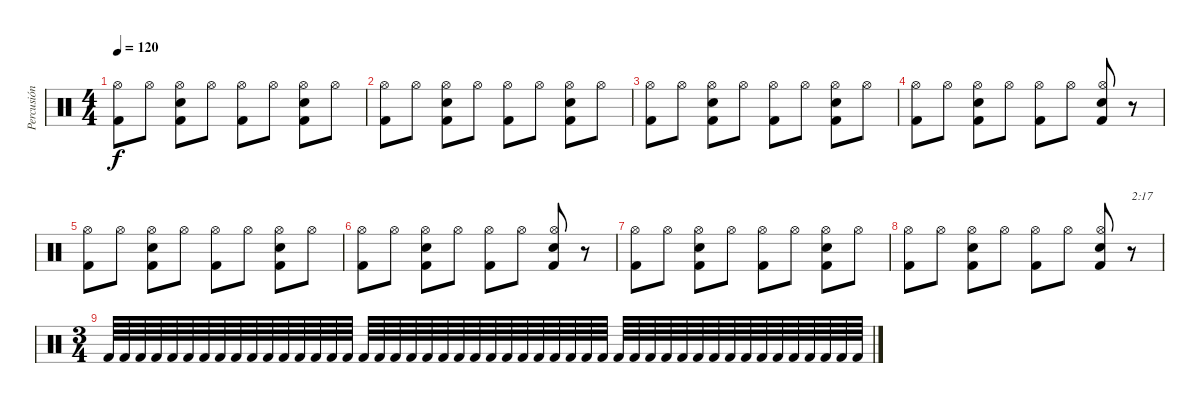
\track ("Percusión" "Percusión") {instrument percussion}
\staff {score}
\articulation defaults
\ts (4 4)
\tempo 120
\clef neutral
\ks c
("Kick (hit) 2" "Hi-Hat (open)").8{dy f} "Hi-Hat (open)".8 ("Kick (hit) 2" "Electric Snare (hit)" "Hi-Hat (open)").8 "Hi-Hat (open)".8 ("Kick (hit) 2" "Hi-Hat (open)").8 "Hi-Hat (open)".8 ("Kick (hit) 2" "Electric Snare (hit)" "Hi-Hat (open)").8 "Hi-Hat (open)".8 |
("Kick (hit) 2" "Hi-Hat (open)").8 "Hi-Hat (open)".8 ("Kick (hit) 2" "Electric Snare (hit)" "Hi-Hat (open)").8 "Hi-Hat (open)".8 ("Kick (hit) 2" "Hi-Hat (open)").8 "Hi-Hat (open)".8 ("Kick (hit) 2" "Electric Snare (hit)" "Hi-Hat (open)").8 "Hi-Hat (open)".8 |
("Kick (hit) 2" "Hi-Hat (open)").8 "Hi-Hat (open)".8 ("Kick (hit) 2" "Electric Snare (hit)" "Hi-Hat (open)").8 "Hi-Hat (open)".8 ("Kick (hit) 2" "Hi-Hat (open)").8 "Hi-Hat (open)".8 ("Kick (hit) 2" "Electric Snare (hit)" "Hi-Hat (open)").8 "Hi-Hat (open)".8 |
("Kick (hit) 2" "Hi-Hat (open)").8 "Hi-Hat (open)".8 ("Kick (hit) 2" "Electric Snare (hit)" "Hi-Hat (open)").8 "Hi-Hat (open)".8 ("Kick (hit) 2" "Hi-Hat (open)").8 "Hi-Hat (open)".8 ("Kick (hit) 2" "Electric Snare (hit)" "Hi-Hat (open)").8 r.8 |
("Kick (hit) 2" "Hi-Hat (open)").8 "Hi-Hat (open)".8 ("Kick (hit) 2" "Electric Snare (hit)" "Hi-Hat (open)").8 "Hi-Hat (open)".8 ("Kick (hit) 2" "Hi-Hat (open)").8 "Hi-Hat (open)".8 ("Kick (hit) 2" "Electric Snare (hit)" "Hi-Hat (open)").8 "Hi-Hat (open)".8 |
("Kick (hit) 2" "Hi-Hat (open)").8 "Hi-Hat (open)".8 ("Kick (hit) 2" "Electric Snare (hit)" "Hi-Hat (open)").8 "Hi-Hat (open)".8 ("Kick (hit) 2" "Hi-Hat (open)").8 "Hi-Hat (open)".8 ("Kick (hit) 2" "Electric Snare (hit)" "Hi-Hat (open)").8 r.8 |
("Kick (hit) 2" "Hi-Hat (open)").8 "Hi-Hat (open)".8 ("Kick (hit) 2" "Electric Snare (hit)" "Hi-Hat (open)").8 "Hi-Hat (open)".8 ("Kick (hit) 2" "Hi-Hat (open)").8 "Hi-Hat (open)".8 ("Kick (hit) 2" "Electric Snare (hit)" "Hi-Hat (open)").8 "Hi-Hat (open)".8 |
("Kick (hit) 2" "Hi-Hat (open)").8 "Hi-Hat (open)".8 ("Kick (hit) 2" "Electric Snare (hit)" "Hi-Hat (open)").8 "Hi-Hat (open)".8 ("Kick (hit) 2" "Hi-Hat (open)").8 "Hi-Hat (open)".8 ("Kick (hit) 2" "Electric Snare (hit)" "Hi-Hat (open)").8 r.8{txt "2:17"} |
\ts (3 4)
"Kick (hit) 2".64 "Kick (hit) 2".64 "Kick (hit) 2".64 "Kick (hit) 2".64 "Kick (hit) 2".64 "Kick (hit) 2".64 "Kick (hit) 2".64 "Kick (hit) 2".64 "Kick (hit) 2".64 "Kick (hit) 2".64 "Kick (hit) 2".64 "Kick (hit) 2".64 "Kick (hit) 2".64 "Kick (hit) 2".64 "Kick (hit) 2".64 "Kick (hit) 2".64 "Kick (hit) 2".64 "Kick (hit) 2".64 "Kick (hit) 2".64 "Kick (hit) 2".64 "Kick (hit) 2".64 "Kick (hit) 2".64 "Kick (hit) 2".64 "Kick (hit) 2".64 "Kick (hit) 2".64 "Kick (hit) 2".64 "Kick (hit) 2".64 "Kick (hit) 2".64 "Kick (hit) 2".64 "Kick (hit) 2".64 "Kick (hit) 2".64 "Kick (hit) 2".64 "Kick (hit) 2".64 "Kick (hit) 2".64 "Kick (hit) 2".64 "Kick (hit) 2".64 "Kick (hit) 2".64 "Kick (hit) 2".64 "Kick (hit) 2".64 "Kick (hit) 2".64 "Kick (hit) 2".64 "Kick (hit) 2".64 "Kick (hit) 2".64 "Kick (hit) 2".64 "Kick (hit) 2".64 "Kick (hit) 2".64 "Kick (hit) 2".64 "Kick (hit) 2".64
